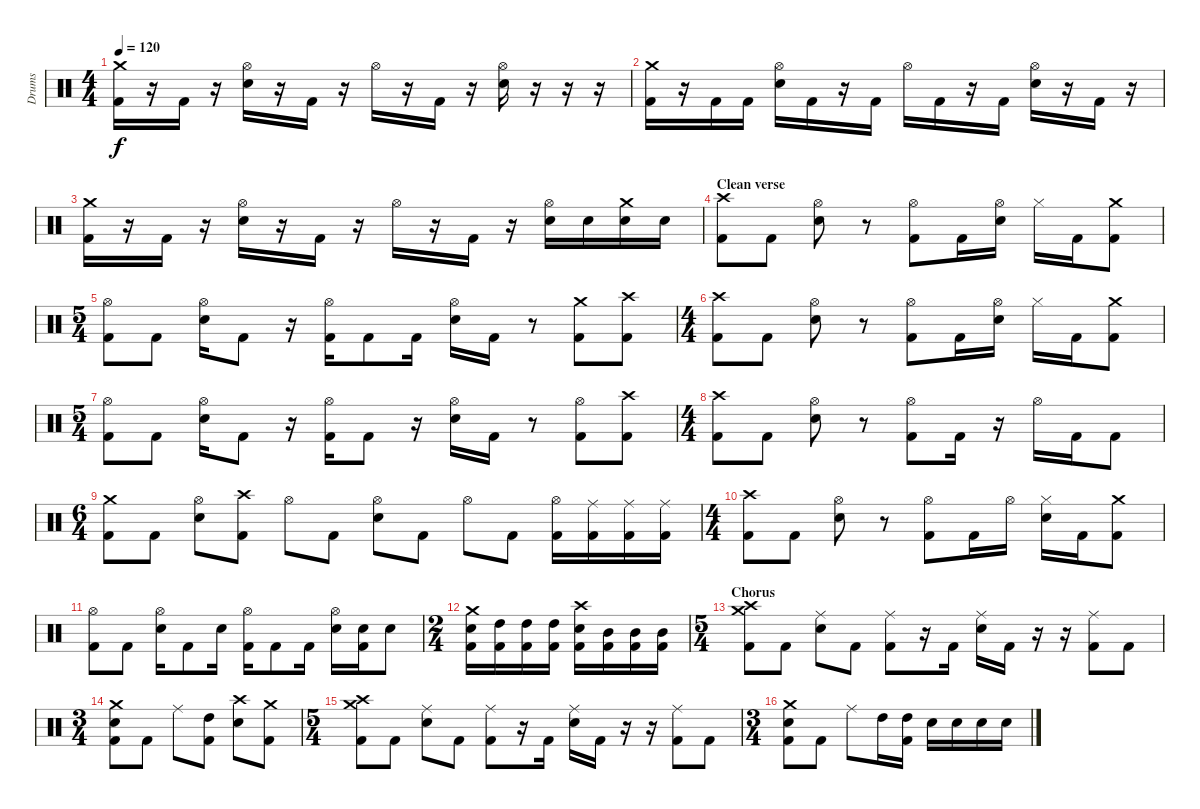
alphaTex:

\track ("Drums" "Drums") {instrument percussion}
\staff {score}
\articulation defaults
\ts (4 4)
\tempo 120
\clef neutral
\ks c
("Crash medium (hit)" "Kick (hit) 2").16{dy f} r.16 "Kick (hit) 2".16 r.16 ("Hi-Hat (open)" "Electric Snare (hit)").16 r.16 "Kick (hit) 2".16 r.16 "Hi-Hat (open)".16 r.16 "Kick (hit) 2".16 r.16 ("Hi-Hat (open)" "Electric Snare (hit)").16 r.16 r.16 r.16 |
("Crash medium (hit)" "Kick (hit) 2").16 r.16 "Kick (hit) 2".16 "Kick (hit) 2".16 ("Hi-Hat (open)" "Electric Snare (hit)").16 "Kick (hit) 2".16 r.16 "Kick (hit) 2".16 "Hi-Hat (open)".16 "Kick (hit) 2".16 r.16 "Kick (hit) 2".16 ("Hi-Hat (open)" "Electric Snare (hit)").16 r.16 "Kick (hit) 2".16 r.16 |
("Crash medium (hit)" "Kick (hit) 2").16 r.16 "Kick (hit) 2".16 r.16 ("Hi-Hat (open)" "Electric Snare (hit)").16 r.16 "Kick (hit) 2".16 r.16 "Hi-Hat (open)".16 r.16 "Kick (hit) 2".16 r.16 ("Hi-Hat (open)" "Electric Snare (hit)").16 "Electric Snare (hit)".16 ("Crash medium (hit)" "Electric Snare (hit)").16 "Electric Snare (hit)".16 |
\section ("" "Clean verse")
("Crash high (hit)" "Kick (hit) 2").8 "Kick (hit) 2".8 ("Hi-Hat (open)" "Electric Snare (hit)").8 r.8 ("Hi-Hat (open)" "Kick (hit) 2").8 "Kick (hit) 2".16 ("Hi-Hat (open)" "Electric Snare (hit)").16 "Hi-Hat (closed)".16 "Kick (hit) 2".16 ("Crash medium (hit)" "Kick (hit) 2").8 |
\ts (5 4)
("Hi-Hat (open)" "Kick (hit) 2").8 "Kick (hit) 2".8 ("Hi-Hat (open)" "Electric Snare (hit)").16 "Kick (hit) 2".8 r.16 ("Hi-Hat (open)" "Kick (hit) 2").16 "Kick (hit) 2".8 "Kick (hit) 2".16 ("Hi-Hat (open)" "Electric Snare (hit)").16 "Kick (hit) 2".16 r.8 ("Crash medium (hit)" "Kick (hit) 2").8 ("Crash high (hit)" "Kick (hit) 2").8 |
\ts (4 4)
("Crash high (hit)" "Kick (hit) 2").8 "Kick (hit) 2".8 ("Hi-Hat (open)" "Electric Snare (hit)").8 r.8 ("Hi-Hat (open)" "Kick (hit) 2").8 "Kick (hit) 2".16 ("Hi-Hat (open)" "Electric Snare (hit)").16 "Hi-Hat (closed)".16 "Kick (hit) 2".16 ("Crash medium (hit)" "Kick (hit) 2").8 |
\ts (5 4)
("Hi-Hat (open)" "Kick (hit) 2").8 "Kick (hit) 2".8 ("Hi-Hat (open)" "Electric Snare (hit)").16 "Kick (hit) 2".8 r.16 ("Hi-Hat (open)" "Kick (hit) 2").16 "Kick (hit) 2".8 r.16 ("Hi-Hat (open)" "Electric Snare (hit)").16 "Kick (hit) 2".16 r.8 ("Hi-Hat (open)" "Kick (hit) 2").8 ("Crash high (hit)" "Kick (hit) 2").8 |
\ts (4 4)
("Crash high (hit)" "Kick (hit) 2").8 "Kick (hit) 2".8 ("Hi-Hat (open)" "Electric Snare (hit)").8 r.8 ("Hi-Hat (open)" "Kick (hit) 2").8 "Kick (hit) 2".16 r.16 "Hi-Hat (open)".16 "Kick (hit) 2".16 "Kick (hit) 2".8 |
\ts (6 4)
("Crash medium (hit)" "Kick (hit) 2").8 "Kick (hit) 2".8 ("Hi-Hat (open)" "Electric Snare (hit)").8 ("Crash high (hit)" "Kick (hit) 2").8 "Hi-Hat (open)".8 "Kick (hit) 2".8 ("Hi-Hat (open)" "Electric Snare (hit)").8 "Kick (hit) 2".8 "Hi-Hat (open)".8 "Kick (hit) 2".8 ("Hi-Hat (open)" "Kick (hit) 2").16 ("Ride (middle)" "Kick (hit) 2").16 ("Ride (middle)" "Kick (hit) 2").16 ("Ride (middle)" "Kick (hit) 2").16 |
\ts (4 4)
("Crash high (hit)" "Kick (hit) 2").8 "Kick (hit) 2".8 ("Hi-Hat (open)" "Electric Snare (hit)").8 r.8 ("Hi-Hat (open)" "Kick (hit) 2").8 "Kick (hit) 2".16 "Hi-Hat (open)".16 ("Hi-Hat (closed)" "Electric Snare (hit)").16 "Kick (hit) 2".16 ("Crash medium (hit)" "Kick (hit) 2").8 |
("Hi-Hat (open)" "Kick (hit) 2").8 "Kick (hit) 2".8 ("Hi-Hat (open)" "Electric Snare (hit)").16 "Kick (hit) 2".8 "Electric Snare (hit)".16 ("Hi-Hat (open)" "Kick (hit) 2").16 "Kick (hit) 2".8 "Kick (hit) 2".16 ("Hi-Hat (open)" "Electric Snare (hit)").16 ("Electric Snare (hit)" "Kick (hit) 2").16 "Electric Snare (hit)".8 |
\ts (2 4)
("Crash medium (hit)" "Electric Snare (hit)" "Kick (hit) 2").16 ("High Tom (hit)" "Kick (hit) 2").16 ("High Tom (hit)" "Kick (hit) 2").16 ("High Tom (hit)" "Kick (hit) 2").16 ("Crash high (hit)" "Electric Snare (hit)" "Kick (hit) 2").16 ("Mid Tom (hit)" "Kick (hit) 2").16 ("Mid Tom (hit)" "Kick (hit) 2").16 ("Mid Tom (hit)" "Kick (hit) 2").16 |
\ts (5 4)
\section ("" "Chorus")
("Crash high (hit)" "Crash medium (hit)" "Kick (hit) 2").8 "Kick (hit) 2".8 ("Ride (middle)" "Electric Snare (hit)").8 "Kick (hit) 2".8 ("Ride (middle)" "Kick (hit) 2").8 r.16 "Kick (hit) 2".16 ("Ride (middle)" "Electric Snare (hit)").16 "Kick (hit) 2".16 r.16 r.16 ("Ride (middle)" "Kick (hit) 2").8 "Kick (hit) 2".8 |
\ts (3 4)
("Crash medium (hit)" "Electric Snare (hit)" "Kick (hit) 2").8 "Kick (hit) 2".8 "Ride (middle)".8 ("High Tom (hit)" "Kick (hit) 2").8 ("Crash high (hit)" "Electric Snare (hit)").8 ("Crash medium (hit)" "Kick (hit) 2").8 |
\ts (5 4)
("Crash high (hit)" "Crash medium (hit)" "Kick (hit) 2").8 "Kick (hit) 2".8 ("Ride (middle)" "Electric Snare (hit)").8 "Kick (hit) 2".8 ("Ride (middle)" "Kick (hit) 2").8 r.16 "Kick (hit) 2".16 ("Ride (middle)" "Electric Snare (hit)").16 "Kick (hit) 2".16 r.16 r.16 ("Ride (middle)" "Kick (hit) 2").8 "Kick (hit) 2".8 |
\ts (3 4)
("Crash medium (hit)" "Electric Snare (hit)" "Kick (hit) 2").8 "Kick (hit) 2".8 "Ride (middle)".8 "High Tom (hit)".16 ("High Tom (hit)" "Kick (hit) 2").16 "Electric Snare (hit)".16 "Electric Snare (hit)".16 "Electric Snare (hit)".16 "Electric Snare (hit)".16
